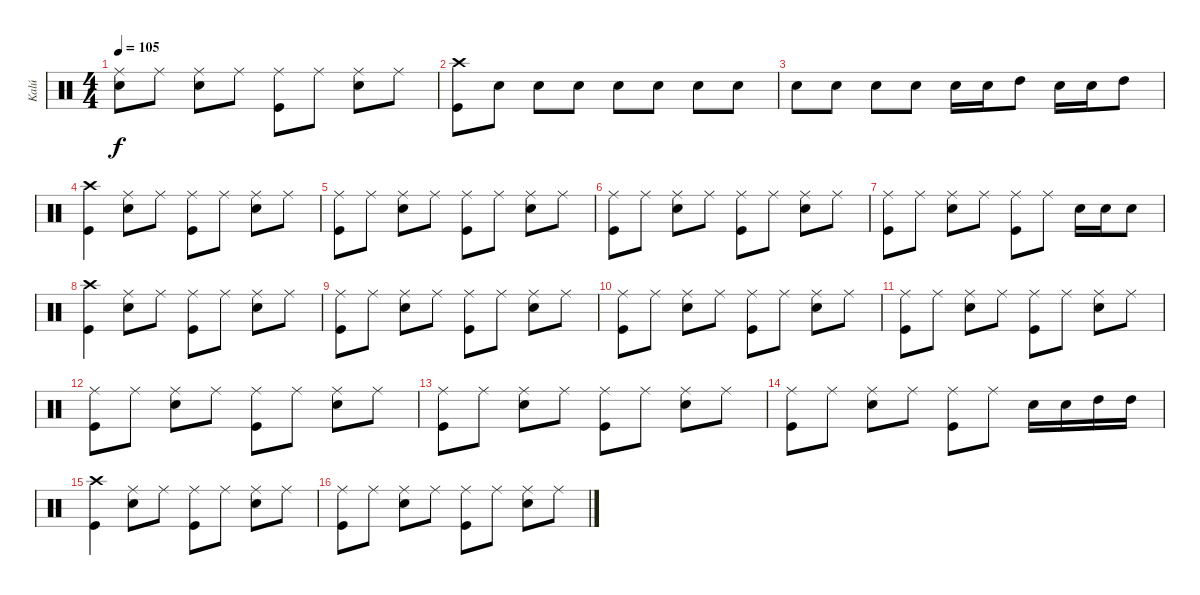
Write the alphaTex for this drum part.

\track ("Kalú" "Kalú") {instrument percussion}
\staff {score}
\articulation defaults
\ts (4 4)
\tempo 105
\clef neutral
\ks c
("Ride (middle)"{t} "Snare (hit)"{t}).8{dy f} "Ride (middle)".8 ("Ride (middle)" "Electric Snare (hit)").8 "Ride (middle)".8 ("Ride (middle)" "Kick (hit)").8 "Ride (middle)".8 ("Ride (middle)" "Electric Snare (hit)").8 "Ride (middle)".8 |
("Crash high (hit)" "Kick (hit)").8 "Electric Snare (hit)".8 "Electric Snare (hit)".8 "Electric Snare (hit)".8 "Electric Snare (hit)".8 "Electric Snare (hit)".8 "Electric Snare (hit)".8 "Electric Snare (hit)".8 |
"Electric Snare (hit)".8 "Electric Snare (hit)".8 "Electric Snare (hit)".8 "Electric Snare (hit)".8 "Electric Snare (hit)".16 "Electric Snare (hit)".16 "High Tom (hit)".8 "Electric Snare (hit)".16 "Electric Snare (hit)".16 "High Tom (hit)".8 |
("Crash high (hit)" "Kick (hit)").4 ("Ride (middle)" "Electric Snare (hit)").8 "Ride (middle)".8 ("Ride (middle)" "Kick (hit)").8 "Ride (middle)".8 ("Ride (middle)" "Electric Snare (hit)").8 "Ride (middle)".8 |
("Ride (middle)" "Kick (hit)").8 "Ride (middle)".8 ("Ride (middle)" "Electric Snare (hit)").8 "Ride (middle)".8 ("Ride (middle)" "Kick (hit)").8 "Ride (middle)".8 ("Ride (middle)" "Electric Snare (hit)").8 "Ride (middle)".8 |
("Ride (middle)" "Kick (hit)").8 "Ride (middle)".8 ("Ride (middle)" "Electric Snare (hit)").8 "Ride (middle)".8 ("Ride (middle)" "Kick (hit)").8 "Ride (middle)".8 ("Ride (middle)" "Electric Snare (hit)").8 "Ride (middle)".8 |
("Ride (middle)" "Kick (hit)").8 "Ride (middle)".8 ("Ride (middle)" "Electric Snare (hit)").8 "Ride (middle)".8 ("Ride (middle)" "Kick (hit)").8 "Ride (middle)".8 "Electric Snare (hit)".16 "Electric Snare (hit)".16 "Electric Snare (hit)".8 |
("Crash high (hit)" "Kick (hit)").4 ("Ride (middle)" "Electric Snare (hit)").8 "Ride (middle)".8 ("Ride (middle)" "Kick (hit)").8 "Ride (middle)".8 ("Ride (middle)" "Electric Snare (hit)").8 "Ride (middle)".8 |
("Ride (middle)" "Kick (hit)").8 "Ride (middle)".8 ("Ride (middle)" "Electric Snare (hit)").8 "Ride (middle)".8 ("Ride (middle)" "Kick (hit)").8 "Ride (middle)".8 ("Ride (middle)" "Electric Snare (hit)").8 "Ride (middle)".8 |
("Ride (middle)" "Kick (hit)").8 "Ride (middle)".8 ("Ride (middle)" "Electric Snare (hit)").8 "Ride (middle)".8 ("Ride (middle)" "Kick (hit)").8 "Ride (middle)".8 ("Ride (middle)" "Electric Snare (hit)").8 "Ride (middle)".8 |
("Ride (middle)" "Kick (hit)").8 "Ride (middle)".8 ("Ride (middle)" "Electric Snare (hit)").8 "Ride (middle)".8 ("Ride (middle)" "Kick (hit)").8 "Ride (middle)".8 ("Ride (middle)" "Electric Snare (hit)").8 "Ride (middle)".8 |
("Ride (middle)" "Kick (hit)").8 "Ride (middle)".8 ("Ride (middle)" "Electric Snare (hit)").8 "Ride (middle)".8 ("Ride (middle)" "Kick (hit)").8 "Ride (middle)".8 ("Ride (middle)" "Electric Snare (hit)").8 "Ride (middle)".8 |
("Ride (middle)" "Kick (hit)").8 "Ride (middle)".8 ("Ride (middle)" "Electric Snare (hit)").8 "Ride (middle)".8 ("Ride (middle)" "Kick (hit)").8 "Ride (middle)".8 ("Ride (middle)" "Electric Snare (hit)").8 "Ride (middle)".8 |
("Ride (middle)" "Kick (hit)").8 "Ride (middle)".8 ("Ride (middle)" "Electric Snare (hit)").8 "Ride (middle)".8 ("Ride (middle)" "Kick (hit)").8 "Ride (middle)".8 "Electric Snare (hit)".16 "Electric Snare (hit)".16 "High Tom (hit)".16 "High Tom (hit)".16 |
("Crash high (hit)" "Kick (hit)").4 ("Ride (middle)" "Electric Snare (hit)").8 "Ride (middle)".8 ("Ride (middle)" "Kick (hit)").8 "Ride (middle)".8 ("Ride (middle)" "Electric Snare (hit)").8 "Ride (middle)".8 |
("Ride (middle)" "Kick (hit)").8 "Ride (middle)".8 ("Ride (middle)" "Electric Snare (hit)").8 "Ride (middle)".8 ("Ride (middle)" "Kick (hit)").8 "Ride (middle)".8 ("Ride (middle)" "Electric Snare (hit)").8 "Ride (middle)".8
